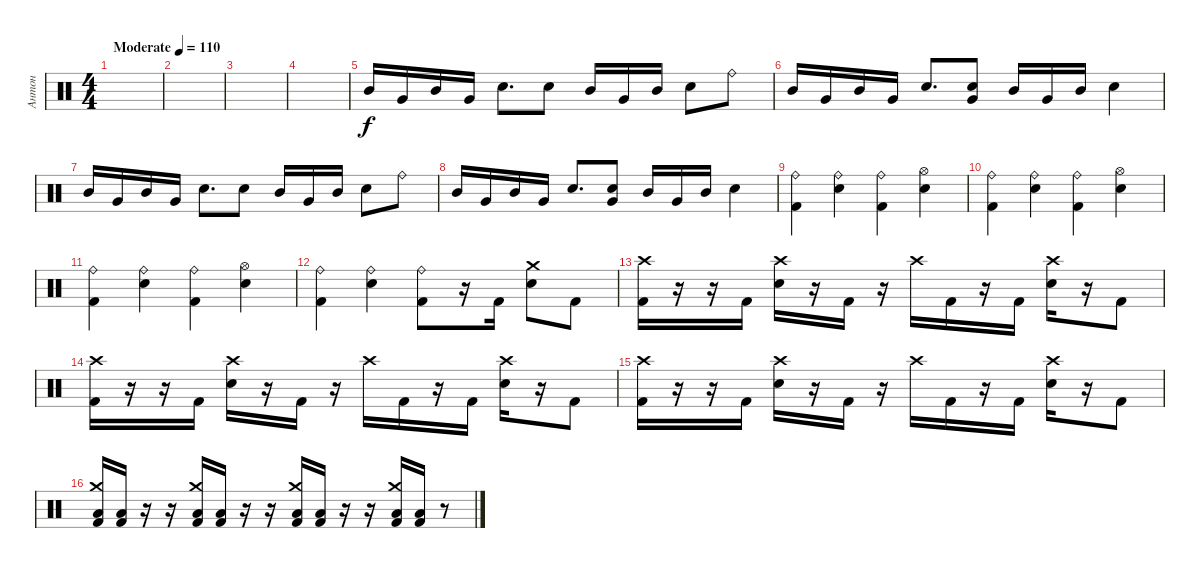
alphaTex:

\track ("Антон" "Антон") {instrument percussion}
\staff {score}
\articulation defaults
\ts (4 4)
\tempo (110 "Moderate")
\clef neutral
\ks c
|
|
|
|
"Mid Tom (hit)".16 "Very Low Tom (hit)".16 "Mid Tom (hit)".16 "Very Low Tom (hit)".16 "Electric Snare (hit)".8{d} "Electric Snare (hit)".8 "Mid Tom (hit)".16 "Very Low Tom (hit)".16 "Mid Tom (hit)".16 "Electric Snare (hit)".8 "Ride (bell)".8 |
"Mid Tom (hit)".16 "Very Low Tom (hit)".16 "Mid Tom (hit)".16 "Very Low Tom (hit)".16 "Electric Snare (hit)".8{d} ("Very Low Tom (hit)" "Electric Snare (hit)").8 "Mid Tom (hit)".16 "Very Low Tom (hit)".16 "Mid Tom (hit)".16 "Electric Snare (hit)".4 |
"Mid Tom (hit)".16 "Very Low Tom (hit)".16 "Mid Tom (hit)".16 "Very Low Tom (hit)".16 "Electric Snare (hit)".8{d} "Electric Snare (hit)".8 "Mid Tom (hit)".16 "Very Low Tom (hit)".16 "Mid Tom (hit)".16 "Electric Snare (hit)".8 "Ride (bell)".8 |
"Mid Tom (hit)".16 "Very Low Tom (hit)".16 "Mid Tom (hit)".16 "Very Low Tom (hit)".16 "Electric Snare (hit)".8{d} ("Very Low Tom (hit)" "Electric Snare (hit)").8 "Mid Tom (hit)".16 "Very Low Tom (hit)".16 "Mid Tom (hit)".16 "Electric Snare (hit)".4 |
("Ride (bell)" "Kick (hit) 2").4 ("Ride (bell)" "Electric Snare (hit)").4 ("Ride (bell)" "Kick (hit) 2").4 ("Hi-Hat (open)" "Electric Snare (hit)").4 |
("Ride (bell)" "Kick (hit) 2").4 ("Ride (bell)" "Electric Snare (hit)").4 ("Ride (bell)" "Kick (hit) 2").4 ("Hi-Hat (open)" "Electric Snare (hit)").4 |
("Ride (bell)" "Kick (hit) 2").4 ("Ride (bell)" "Electric Snare (hit)").4 ("Ride (bell)" "Kick (hit) 2").4 ("Hi-Hat (open)" "Electric Snare (hit)").4 |
("Ride (bell)" "Kick (hit) 2").4 ("Ride (bell)" "Electric Snare (hit)").4 ("Ride (bell)" "Kick (hit) 2").8 r.16 "Kick (hit) 2".16 ("Crash medium (hit)" "Electric Snare (hit)").8 "Kick (hit) 2".8 |
("Crash high (hit)" "Kick (hit) 2").16 r.16 r.16 "Kick (hit) 2".16 ("Crash high (hit)" "Electric Snare (hit)").16 r.16 "Kick (hit) 2".16 r.16 "Crash high (hit)".16 "Kick (hit) 2".16 r.16 "Kick (hit) 2".16 ("Crash high (hit)" "Electric Snare (hit)").16 r.16 "Kick (hit) 2".8 |
("Crash high (hit)" "Kick (hit) 2").16 r.16 r.16 "Kick (hit) 2".16 ("Crash high (hit)" "Electric Snare (hit)").16 r.16 "Kick (hit) 2".16 r.16 "Crash high (hit)".16 "Kick (hit) 2".16 r.16 "Kick (hit) 2".16 ("Crash high (hit)" "Electric Snare (hit)").16 r.16 "Kick (hit) 2".8 |
("Crash high (hit)" "Kick (hit) 2").16 r.16 r.16 "Kick (hit) 2".16 ("Crash high (hit)" "Electric Snare (hit)").16 r.16 "Kick (hit) 2".16 r.16 "Crash high (hit)".16 "Kick (hit) 2".16 r.16 "Kick (hit) 2".16 ("Crash high (hit)" "Electric Snare (hit)").16 r.16 "Kick (hit) 2".8 |
("Crash medium (hit)" "Low Tom (hit)" "Kick (hit) 2").16 ("Low Tom (hit)" "Kick (hit) 2").16 r.16 r.16 ("Crash medium (hit)" "Low Tom (hit)" "Kick (hit) 2").16 ("Low Tom (hit)" "Kick (hit) 2").16 r.16 r.16 ("Crash medium (hit)" "Low Tom (hit)" "Kick (hit) 2").16 ("Low Tom (hit)" "Kick (hit) 2").16 r.16 r.16 ("Crash medium (hit)" "Low Tom (hit)" "Kick (hit) 2").16 ("Low Tom (hit)" "Kick (hit) 2").16 r.8
